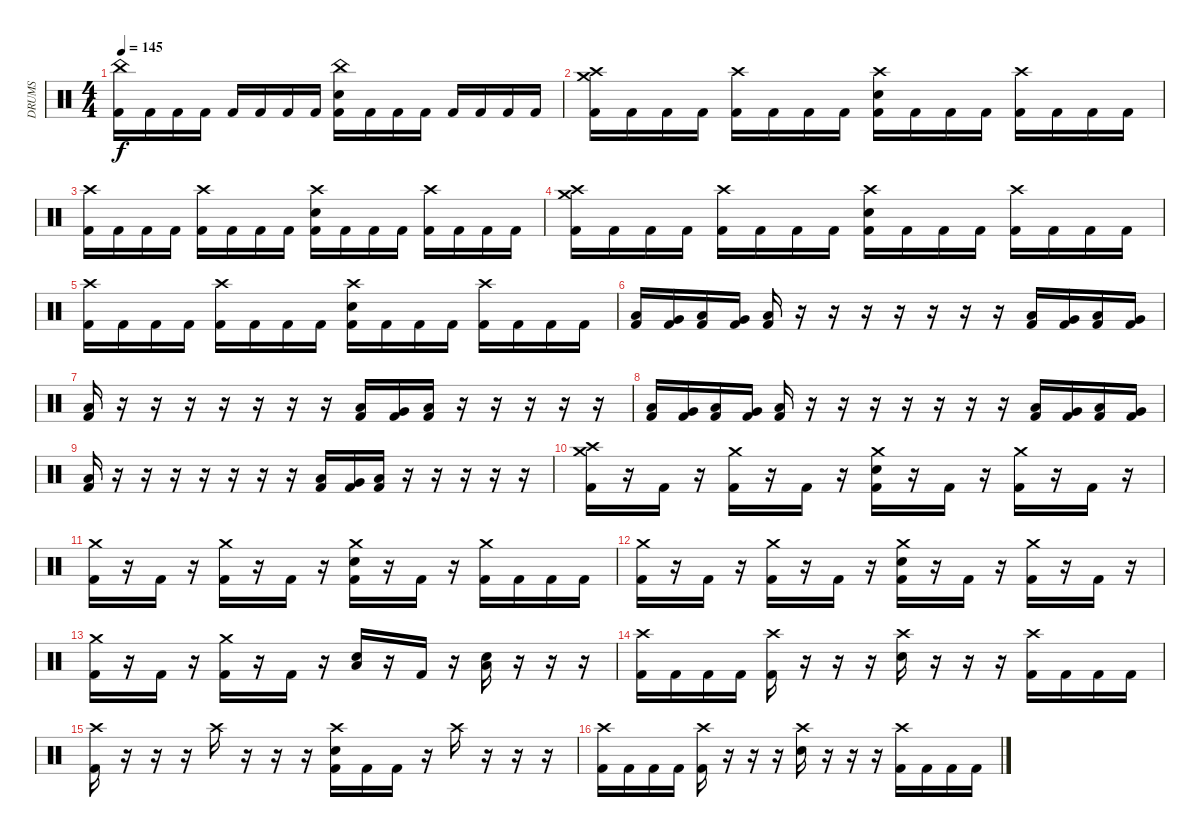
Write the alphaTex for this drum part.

\track ("DRUMS" "DRUMS") {instrument percussion}
\staff {score}
\articulation defaults
\ts (4 4)
\tempo 145
\clef neutral
\ks c
("China (hit)" "Kick (hit) 2").16{dy f} "Kick (hit) 2".16 "Kick (hit) 2".16 "Kick (hit) 2".16 "Kick (hit) 2".16 "Kick (hit) 2".16 "Kick (hit) 2".16 "Kick (hit) 2".16 ("China (hit)" "Electric Snare (hit)" "Kick (hit) 2").16 "Kick (hit) 2".16 "Kick (hit) 2".16 "Kick (hit) 2".16 "Kick (hit) 2".16 "Kick (hit) 2".16 "Kick (hit) 2".16 "Kick (hit) 2".16 |
("Crash medium (hit)" "Crash high (hit)" "Kick (hit) 2").16 "Kick (hit) 2".16 "Kick (hit) 2".16 "Kick (hit) 2".16 ("Crash high (hit)" "Kick (hit) 2").16 "Kick (hit) 2".16 "Kick (hit) 2".16 "Kick (hit) 2".16 ("Crash high (hit)" "Electric Snare (hit)" "Kick (hit) 2").16 "Kick (hit) 2".16 "Kick (hit) 2".16 "Kick (hit) 2".16 ("Crash high (hit)" "Kick (hit) 2").16 "Kick (hit) 2".16 "Kick (hit) 2".16 "Kick (hit) 2".16 |
("Crash high (hit)" "Kick (hit) 2").16 "Kick (hit) 2".16 "Kick (hit) 2".16 "Kick (hit) 2".16 ("Crash high (hit)" "Kick (hit) 2").16 "Kick (hit) 2".16 "Kick (hit) 2".16 "Kick (hit) 2".16 ("Crash high (hit)" "Electric Snare (hit)" "Kick (hit) 2").16 "Kick (hit) 2".16 "Kick (hit) 2".16 "Kick (hit) 2".16 ("Crash high (hit)" "Kick (hit) 2").16 "Kick (hit) 2".16 "Kick (hit) 2".16 "Kick (hit) 2".16 |
("Crash high (hit)" "Crash medium (hit)" "Kick (hit) 2").16 "Kick (hit) 2".16 "Kick (hit) 2".16 "Kick (hit) 2".16 ("Crash high (hit)" "Kick (hit) 2").16 "Kick (hit) 2".16 "Kick (hit) 2".16 "Kick (hit) 2".16 ("Crash high (hit)" "Electric Snare (hit)" "Kick (hit) 2").16 "Kick (hit) 2".16 "Kick (hit) 2".16 "Kick (hit) 2".16 ("Crash high (hit)" "Kick (hit) 2").16 "Kick (hit) 2".16 "Kick (hit) 2".16 "Kick (hit) 2".16 |
("Crash high (hit)" "Kick (hit) 2").16 "Kick (hit) 2".16 "Kick (hit) 2".16 "Kick (hit) 2".16 ("Crash high (hit)" "Kick (hit) 2").16 "Kick (hit) 2".16 "Kick (hit) 2".16 "Kick (hit) 2".16 ("Crash high (hit)" "Electric Snare (hit)" "Kick (hit) 2").16 "Kick (hit) 2".16 "Kick (hit) 2".16 "Kick (hit) 2".16 ("Crash high (hit)" "Kick (hit) 2").16 "Kick (hit) 2".16 "Kick (hit) 2".16 "Kick (hit) 2".16 |
("Low Floor Tom (hit)" "Kick (hit) 2").16 ("Very Low Tom (hit)" "Kick (hit) 2").16 ("Low Floor Tom (hit)" "Kick (hit) 2").16 ("Very Low Tom (hit)" "Kick (hit) 2").16 ("Low Floor Tom (hit)" "Kick (hit) 2").16 r.16 r.16 r.16 r.16 r.16 r.16 r.16 ("Low Floor Tom (hit)" "Kick (hit) 2").16 ("Very Low Tom (hit)" "Kick (hit) 2").16 ("Low Floor Tom (hit)" "Kick (hit) 2").16 ("Very Low Tom (hit)" "Kick (hit) 2").16 |
("Low Floor Tom (hit)" "Kick (hit) 2").16 r.16 r.16 r.16 r.16 r.16 r.16 r.16 ("Low Floor Tom (hit)" "Kick (hit) 2").16 ("Very Low Tom (hit)" "Kick (hit) 2").16 ("Low Floor Tom (hit)" "Kick (hit) 2").16 r.16 r.16 r.16 r.16 r.16 |
("Low Floor Tom (hit)" "Kick (hit) 2").16 ("Very Low Tom (hit)" "Kick (hit) 2").16 ("Low Floor Tom (hit)" "Kick (hit) 2").16 ("Very Low Tom (hit)" "Kick (hit) 2").16 ("Low Floor Tom (hit)" "Kick (hit) 2").16 r.16 r.16 r.16 r.16 r.16 r.16 r.16 ("Low Floor Tom (hit)" "Kick (hit) 2").16 ("Very Low Tom (hit)" "Kick (hit) 2").16 ("Low Floor Tom (hit)" "Kick (hit) 2").16 ("Very Low Tom (hit)" "Kick (hit) 2").16 |
("Low Floor Tom (hit)" "Kick (hit) 2").16 r.16 r.16 r.16 r.16 r.16 r.16 r.16 ("Low Floor Tom (hit)" "Kick (hit) 2").16 ("Very Low Tom (hit)" "Kick (hit) 2").16 ("Low Floor Tom (hit)" "Kick (hit) 2").16 r.16 r.16 r.16 r.16 r.16 |
("Crash medium (hit)" "Crash high (hit)" "Kick (hit) 2").16 r.16 "Kick (hit) 2".16 r.16 ("Crash medium (hit)" "Kick (hit) 2").16 r.16 "Kick (hit) 2".16 r.16 ("Crash medium (hit)" "Electric Snare (hit)" "Kick (hit) 2").16 r.16 "Kick (hit) 2".16 r.16 ("Crash medium (hit)" "Kick (hit) 2").16 r.16 "Kick (hit) 2".16 r.16 |
("Crash medium (hit)" "Kick (hit) 2").16 r.16 "Kick (hit) 2".16 r.16 ("Crash medium (hit)" "Kick (hit) 2").16 r.16 "Kick (hit) 2".16 r.16 ("Crash medium (hit)" "Electric Snare (hit)" "Kick (hit) 2").16 r.16 "Kick (hit) 2".16 r.16 ("Crash medium (hit)" "Kick (hit) 2").16 "Kick (hit) 2".16 "Kick (hit) 2".16 "Kick (hit) 2".16 |
("Crash medium (hit)" "Kick (hit) 2").16 r.16 "Kick (hit) 2".16 r.16 ("Crash medium (hit)" "Kick (hit) 2").16 r.16 "Kick (hit) 2".16 r.16 ("Crash medium (hit)" "Electric Snare (hit)" "Kick (hit) 2").16 r.16 "Kick (hit) 2".16 r.16 ("Crash medium (hit)" "Kick (hit) 2").16 r.16 "Kick (hit) 2".16 r.16 |
("Crash medium (hit)" "Kick (hit) 2").16 r.16 "Kick (hit) 2".16 r.16 ("Crash medium (hit)" "Kick (hit) 2").16 r.16 "Kick (hit) 2".16 r.16 ("Low Floor Tom (hit)" "Electric Snare (hit)").16 r.16 "Kick (hit) 2".16 r.16 ("Low Floor Tom (hit)" "Electric Snare (hit)").16 r.16 r.16 r.16 |
("Crash high (hit)" "Kick (hit) 2").16 "Kick (hit) 2".16 "Kick (hit) 2".16 "Kick (hit) 2".16 ("Crash high (hit)" "Kick (hit) 2").16 r.16 r.16 r.16 ("Crash high (hit)" "Electric Snare (hit)").16 r.16 r.16 r.16 ("Crash high (hit)" "Kick (hit) 2").16 "Kick (hit) 2".16 "Kick (hit) 2".16 "Kick (hit) 2".16 |
("Crash high (hit)" "Kick (hit) 2").16 r.16 r.16 r.16 "Crash high (hit)".16 r.16 r.16 r.16 ("Crash high (hit)" "Electric Snare (hit)" "Kick (hit) 2").16 "Kick (hit) 2".16 "Kick (hit) 2".16 r.16 "Crash high (hit)".16 r.16 r.16 r.16 |
("Crash high (hit)" "Kick (hit) 2").16 "Kick (hit) 2".16 "Kick (hit) 2".16 "Kick (hit) 2".16 ("Crash high (hit)" "Kick (hit) 2").16 r.16 r.16 r.16 ("Crash high (hit)" "Electric Snare (hit)").16 r.16 r.16 r.16 ("Crash high (hit)" "Kick (hit) 2").16 "Kick (hit) 2".16 "Kick (hit) 2".16 "Kick (hit) 2".16
